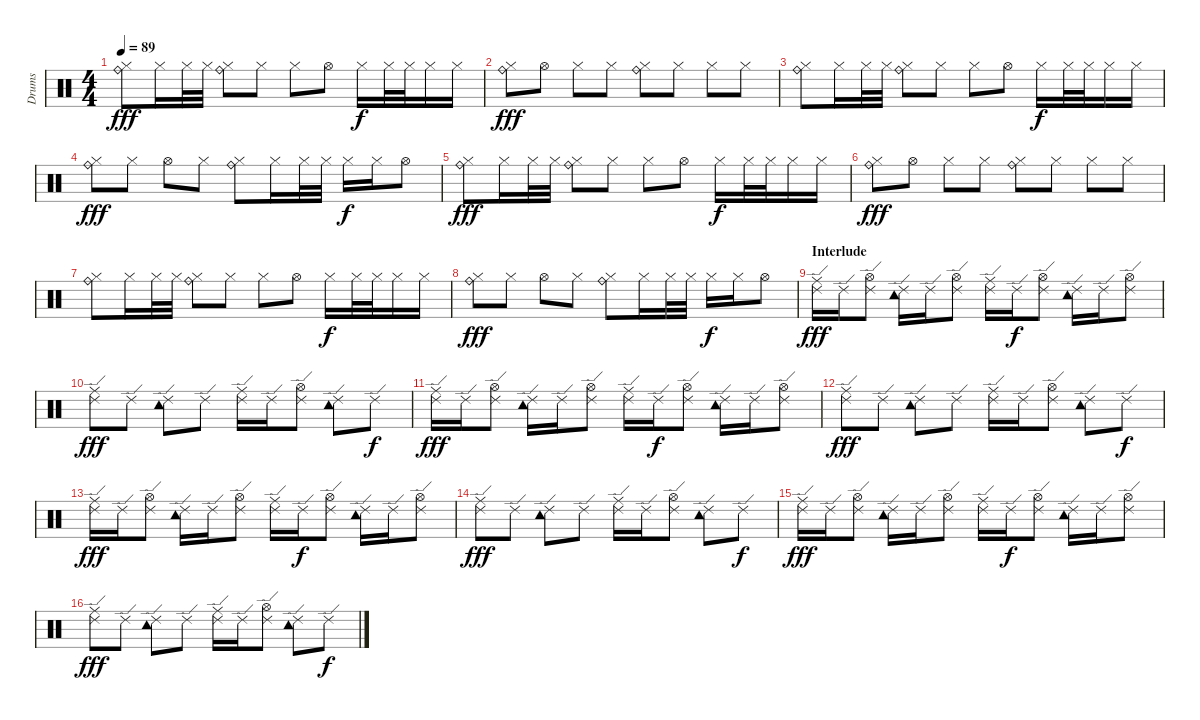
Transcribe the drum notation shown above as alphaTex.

\track ("Drums" "Drums") {instrument percussion}
\staff {score}
\articulation defaults
\ts (4 4)
\tempo 89
\clef neutral
\ks c
("Hi-Hat (closed)" "Ride (bell)").8{dy fff} "Hi-Hat (closed)".16 "Hi-Hat (closed)".32 "Hi-Hat (closed)".32 ("Hi-Hat (closed)" "Ride (bell)").8 "Hi-Hat (closed)".8 "Hi-Hat (closed)".8 "Hi-Hat (open)".8 "Hi-Hat (closed)".16{dy f} "Hi-Hat (closed)".32 "Hi-Hat (closed)".32 "Hi-Hat (closed)".16 "Hi-Hat (closed)".16 |
("Hi-Hat (closed)" "Ride (bell)").8{dy fff} "Hi-Hat (open)".8 "Hi-Hat (closed)".8 "Hi-Hat (closed)".8 ("Hi-Hat (closed)" "Ride (bell)").8 "Hi-Hat (closed)".8 "Hi-Hat (closed)".8 "Hi-Hat (closed)".8 |
("Hi-Hat (closed)" "Ride (bell)").8 "Hi-Hat (closed)".16 "Hi-Hat (closed)".32 "Hi-Hat (closed)".32 ("Hi-Hat (closed)" "Ride (bell)").8 "Hi-Hat (closed)".8 "Hi-Hat (closed)".8 "Hi-Hat (open)".8 "Hi-Hat (closed)".16{dy f} "Hi-Hat (closed)".32 "Hi-Hat (closed)".32 "Hi-Hat (closed)".16 "Hi-Hat (closed)".16 |
("Hi-Hat (closed)" "Ride (bell)").8{dy fff} "Hi-Hat (closed)".8 "Hi-Hat (open)".8 "Hi-Hat (closed)".8 ("Hi-Hat (closed)" "Ride (bell)").8 "Hi-Hat (closed)".16 "Hi-Hat (closed)".32 "Hi-Hat (closed)".32 "Hi-Hat (closed)".16{dy f} "Hi-Hat (closed)".16 "Hi-Hat (open)".8 |
("Hi-Hat (closed)" "Ride (bell)").8{dy fff} "Hi-Hat (closed)".16 "Hi-Hat (closed)".32 "Hi-Hat (closed)".32 ("Hi-Hat (closed)" "Ride (bell)").8 "Hi-Hat (closed)".8 "Hi-Hat (closed)".8 "Hi-Hat (open)".8 "Hi-Hat (closed)".16{dy f} "Hi-Hat (closed)".32 "Hi-Hat (closed)".32 "Hi-Hat (closed)".16 "Hi-Hat (closed)".16 |
("Hi-Hat (closed)" "Ride (bell)").8{dy fff} "Hi-Hat (open)".8 "Hi-Hat (closed)".8 "Hi-Hat (closed)".8 ("Hi-Hat (closed)" "Ride (bell)").8 "Hi-Hat (closed)".8 "Hi-Hat (closed)".8 "Hi-Hat (closed)".8 |
("Hi-Hat (closed)" "Ride (bell)").8 "Hi-Hat (closed)".16 "Hi-Hat (closed)".32 "Hi-Hat (closed)".32 ("Hi-Hat (closed)" "Ride (bell)").8 "Hi-Hat (closed)".8 "Hi-Hat (closed)".8 "Hi-Hat (open)".8 "Hi-Hat (closed)".16{dy f} "Hi-Hat (closed)".32 "Hi-Hat (closed)".32 "Hi-Hat (closed)".16 "Hi-Hat (closed)".16 |
("Hi-Hat (closed)" "Ride (bell)").8{dy fff} "Hi-Hat (closed)".8 "Hi-Hat (open)".8 "Hi-Hat (closed)".8 ("Hi-Hat (closed)" "Ride (bell)").8 "Hi-Hat (closed)".16 "Hi-Hat (closed)".32 "Hi-Hat (closed)".32 "Hi-Hat (closed)".16{dy f} "Hi-Hat (closed)".16 "Hi-Hat (open)".8 |
\section ("" "Interlude")
("Ride (edge) 2" "Ride (middle)").16{dy fff} "Ride (edge) 2".16 ("Ride (edge) 2" "Hi-Hat (open)").8 ("Ride (edge) 2" "Tambourine (hit)").16 "Ride (edge) 2".16 ("Ride (edge) 2" "Hi-Hat (open)").8 ("Ride (edge) 2" "Ride (middle)").16 "Ride (edge) 2".16{dy f} ("Ride (edge) 2" "Hi-Hat (open)").8 ("Ride (edge) 2" "Tambourine (hit)").16 "Ride (edge) 2".16 ("Ride (edge) 2" "Hi-Hat (open)").8 |
("Ride (edge) 2" "Ride (middle)").8{dy fff} "Ride (edge) 2".8 ("Ride (edge) 2" "Tambourine (hit)").8 "Ride (edge) 2".8 ("Ride (edge) 2" "Ride (middle)").16 "Ride (edge) 2".16 ("Ride (edge) 2" "Hi-Hat (open)").8 ("Ride (edge) 2" "Tambourine (hit)").8 "Ride (edge) 2".8{dy f} |
("Ride (edge) 2" "Ride (middle)").16{dy fff} "Ride (edge) 2".16 ("Ride (edge) 2" "Hi-Hat (open)").8 ("Ride (edge) 2" "Tambourine (hit)").16 "Ride (edge) 2".16 ("Ride (edge) 2" "Hi-Hat (open)").8 ("Ride (edge) 2" "Ride (middle)").16 "Ride (edge) 2".16{dy f} ("Ride (edge) 2" "Hi-Hat (open)").8 ("Ride (edge) 2" "Tambourine (hit)").16 "Ride (edge) 2".16 ("Ride (edge) 2" "Hi-Hat (open)").8 |
("Ride (edge) 2" "Ride (middle)").8{dy fff} "Ride (edge) 2".8 ("Ride (edge) 2" "Tambourine (hit)").8 "Ride (edge) 2".8 ("Ride (edge) 2" "Ride (middle)").16 "Ride (edge) 2".16 ("Ride (edge) 2" "Hi-Hat (open)").8 ("Ride (edge) 2" "Tambourine (hit)").8 "Ride (edge) 2".8{dy f} |
("Ride (edge) 2" "Ride (middle)").16{dy fff} "Ride (edge) 2".16 ("Ride (edge) 2" "Hi-Hat (open)").8 ("Ride (edge) 2" "Tambourine (hit)").16 "Ride (edge) 2".16 ("Ride (edge) 2" "Hi-Hat (open)").8 ("Ride (edge) 2" "Ride (middle)").16 "Ride (edge) 2".16{dy f} ("Ride (edge) 2" "Hi-Hat (open)").8 ("Ride (edge) 2" "Tambourine (hit)").16 "Ride (edge) 2".16 ("Ride (edge) 2" "Hi-Hat (open)").8 |
("Ride (edge) 2" "Ride (middle)").8{dy fff} "Ride (edge) 2".8 ("Ride (edge) 2" "Tambourine (hit)").8 "Ride (edge) 2".8 ("Ride (edge) 2" "Ride (middle)").16 "Ride (edge) 2".16 ("Ride (edge) 2" "Hi-Hat (open)").8 ("Ride (edge) 2" "Tambourine (hit)").8 "Ride (edge) 2".8{dy f} |
("Ride (edge) 2" "Ride (middle)").16{dy fff} "Ride (edge) 2".16 ("Ride (edge) 2" "Hi-Hat (open)").8 ("Ride (edge) 2" "Tambourine (hit)").16 "Ride (edge) 2".16 ("Ride (edge) 2" "Hi-Hat (open)").8 ("Ride (edge) 2" "Ride (middle)").16 "Ride (edge) 2".16{dy f} ("Ride (edge) 2" "Hi-Hat (open)").8 ("Ride (edge) 2" "Tambourine (hit)").16 "Ride (edge) 2".16 ("Ride (edge) 2" "Hi-Hat (open)").8 |
("Ride (edge) 2" "Ride (middle)").8{dy fff} "Ride (edge) 2".8 ("Ride (edge) 2" "Tambourine (hit)").8 "Ride (edge) 2".8 ("Ride (edge) 2" "Ride (middle)").16 "Ride (edge) 2".16 ("Ride (edge) 2" "Hi-Hat (open)").8 ("Ride (edge) 2" "Tambourine (hit)").8 "Ride (edge) 2".8{dy f}
